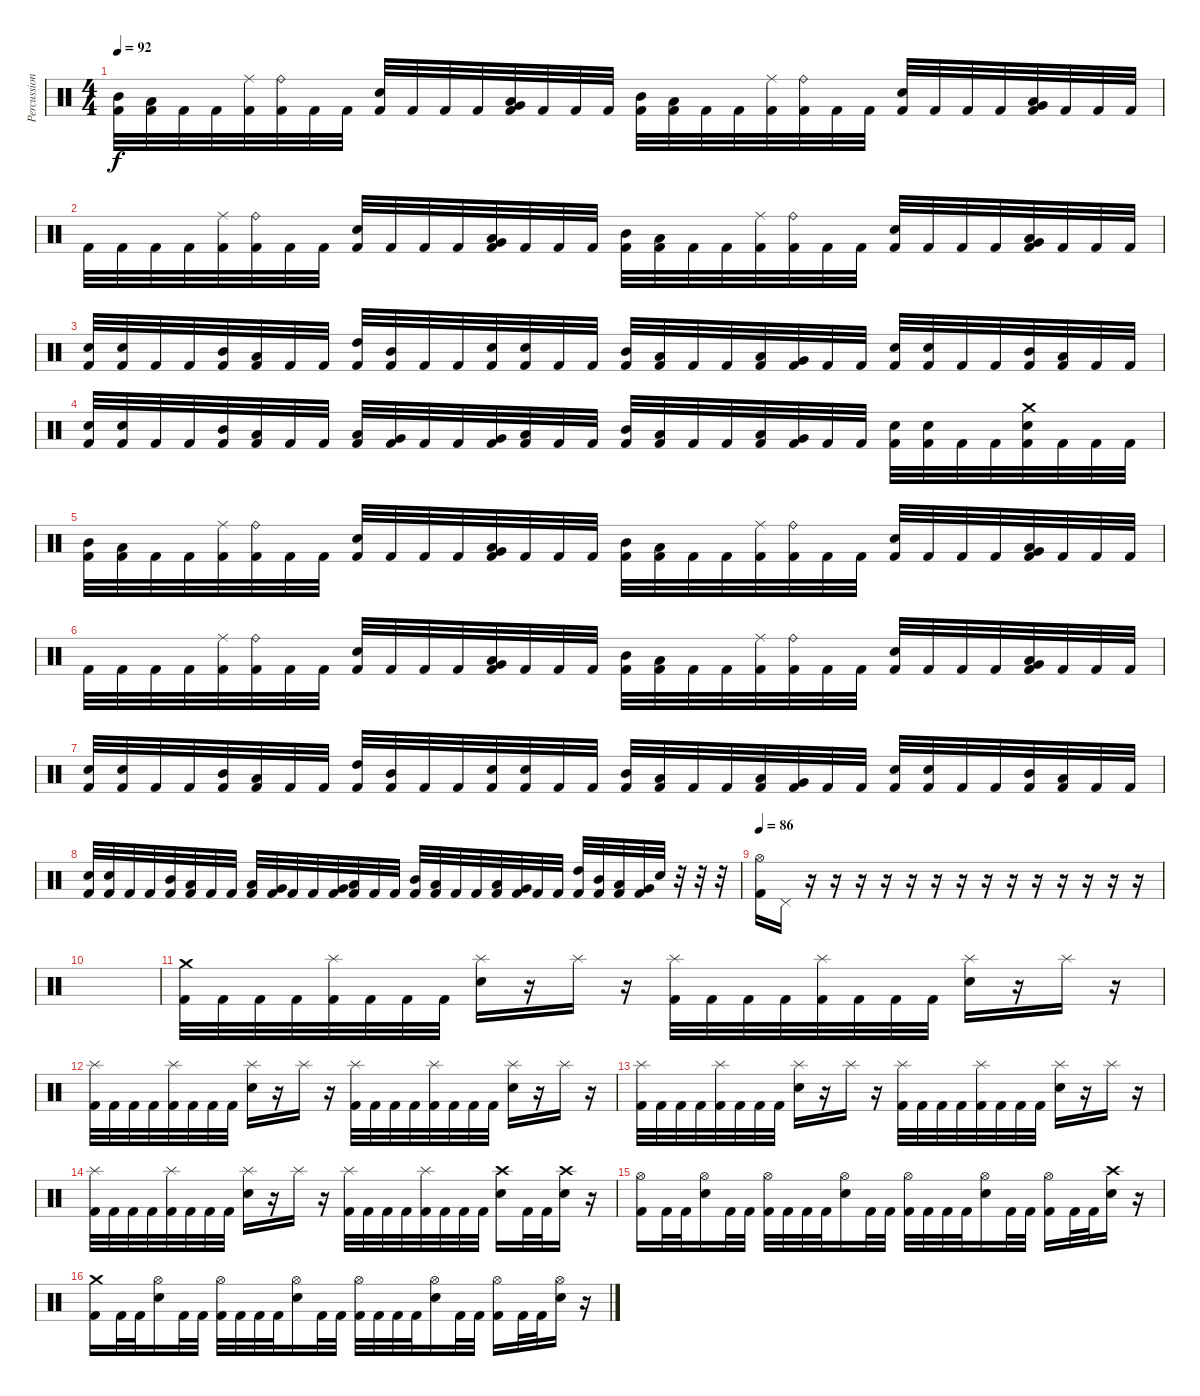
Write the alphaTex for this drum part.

\track ("Percussion" "Percussion") {instrument percussion}
\staff {score}
\articulation defaults
\ts (4 4)
\tempo 92
\clef neutral
\ks c
("Mid Tom (hit)" "Kick (hit) 2").32{dy f} ("Low Tom (hit)" "Kick (hit) 2").32 "Kick (hit) 2".32 "Kick (hit) 2".32 ("Ride (middle)" "Kick (hit) 2").32 ("Ride (bell)" "Kick (hit) 2").32 "Kick (hit) 2".32 "Kick (hit) 2".32 ("Electric Snare (hit)" "Kick (hit) 2").32 "Kick (hit) 2".32 "Kick (hit) 2".32 "Kick (hit) 2".32 ("Low Tom (hit)" "Very Low Tom (hit)" "Kick (hit) 2").32 "Kick (hit) 2".32 "Kick (hit) 2".32 "Kick (hit) 2".32 ("Mid Tom (hit)" "Kick (hit) 2").32 ("Low Tom (hit)" "Kick (hit) 2").32 "Kick (hit) 2".32 "Kick (hit) 2".32 ("Ride (middle)" "Kick (hit) 2").32 ("Ride (bell)" "Kick (hit) 2").32 "Kick (hit) 2".32 "Kick (hit) 2".32 ("Electric Snare (hit)" "Kick (hit) 2").32 "Kick (hit) 2".32 "Kick (hit) 2".32 "Kick (hit) 2".32 ("Low Tom (hit)" "Very Low Tom (hit)" "Kick (hit) 2").32 "Kick (hit) 2".32 "Kick (hit) 2".32 "Kick (hit) 2".32 |
"Kick (hit) 2".32 "Kick (hit) 2".32 "Kick (hit) 2".32 "Kick (hit) 2".32 ("Ride (middle)" "Kick (hit) 2").32 ("Ride (bell)" "Kick (hit) 2").32 "Kick (hit) 2".32 "Kick (hit) 2".32 ("Electric Snare (hit)" "Kick (hit) 2").32 "Kick (hit) 2".32 "Kick (hit) 2".32 "Kick (hit) 2".32 ("Low Tom (hit)" "Very Low Tom (hit)" "Kick (hit) 2").32 "Kick (hit) 2".32 "Kick (hit) 2".32 "Kick (hit) 2".32 ("Mid Tom (hit)" "Kick (hit) 2").32 ("Low Tom (hit)" "Kick (hit) 2").32 "Kick (hit) 2".32 "Kick (hit) 2".32 ("Ride (middle)" "Kick (hit) 2").32 ("Ride (bell)" "Kick (hit) 2").32 "Kick (hit) 2".32 "Kick (hit) 2".32 ("Electric Snare (hit)" "Kick (hit) 2").32 "Kick (hit) 2".32 "Kick (hit) 2".32 "Kick (hit) 2".32 ("Low Tom (hit)" "Very Low Tom (hit)" "Kick (hit) 2").32 "Kick (hit) 2".32 "Kick (hit) 2".32 "Kick (hit) 2".32 |
("Electric Snare (hit)" "Kick (hit) 2").32 ("Electric Snare (hit)" "Kick (hit) 2").32 "Kick (hit) 2".32 "Kick (hit) 2".32 ("Mid Tom (hit)" "Kick (hit) 2").32 ("Low Tom (hit)" "Kick (hit) 2").32 "Kick (hit) 2".32 "Kick (hit) 2".32 ("High Tom (hit)" "Kick (hit) 2").32 ("Mid Tom (hit)" "Kick (hit) 2").32 "Kick (hit) 2".32 "Kick (hit) 2".32 ("Electric Snare (hit)" "Kick (hit) 2").32 ("Electric Snare (hit)" "Kick (hit) 2").32 "Kick (hit) 2".32 "Kick (hit) 2".32 ("Mid Tom (hit)" "Kick (hit) 2").32 ("Low Tom (hit)" "Kick (hit) 2").32 "Kick (hit) 2".32 "Kick (hit) 2".32 ("Low Tom (hit)" "Kick (hit) 2").32 ("Very Low Tom (hit)" "Kick (hit) 2").32 "Kick (hit) 2".32 "Kick (hit) 2".32 ("Electric Snare (hit)" "Kick (hit) 2").32 ("Electric Snare (hit)" "Kick (hit) 2").32 "Kick (hit) 2".32 "Kick (hit) 2".32 ("Mid Tom (hit)" "Kick (hit) 2").32 ("Low Tom (hit)" "Kick (hit) 2").32 "Kick (hit) 2".32 "Kick (hit) 2".32 |
("Electric Snare (hit)" "Kick (hit) 2").32 ("Electric Snare (hit)" "Kick (hit) 2").32 "Kick (hit) 2".32 "Kick (hit) 2".32 ("Mid Tom (hit)" "Kick (hit) 2").32 ("Low Tom (hit)" "Kick (hit) 2").32 "Kick (hit) 2".32 "Kick (hit) 2".32 ("Low Tom (hit)" "Kick (hit) 2").32 ("Very Low Tom (hit)" "Kick (hit) 2").32 "Kick (hit) 2".32 "Kick (hit) 2".32 ("Very Low Tom (hit)" "Kick (hit) 2").32 ("Low Floor Tom (hit)" "Kick (hit) 2").32 "Kick (hit) 2".32 "Kick (hit) 2".32 ("Mid Tom (hit)" "Kick (hit) 2").32 ("Low Tom (hit)" "Kick (hit) 2").32 "Kick (hit) 2".32 "Kick (hit) 2".32 ("Low Tom (hit)" "Kick (hit) 2").32 ("Very Low Tom (hit)" "Kick (hit) 2").32 "Kick (hit) 2".32 "Kick (hit) 2".32 ("Electric Snare (hit)" "Kick (hit) 2").32 ("Electric Snare (hit)" "Kick (hit) 2").32 "Kick (hit) 2".32 "Kick (hit) 2".32 ("Crash medium (hit)" "Electric Snare (hit)" "Kick (hit) 2").32 "Kick (hit) 2".32 "Kick (hit) 2".32 "Kick (hit) 2".32 |
("Mid Tom (hit)" "Kick (hit) 2").32 ("Low Tom (hit)" "Kick (hit) 2").32 "Kick (hit) 2".32 "Kick (hit) 2".32 ("Ride (middle)" "Kick (hit) 2").32 ("Ride (bell)" "Kick (hit) 2").32 "Kick (hit) 2".32 "Kick (hit) 2".32 ("Electric Snare (hit)" "Kick (hit) 2").32 "Kick (hit) 2".32 "Kick (hit) 2".32 "Kick (hit) 2".32 ("Low Tom (hit)" "Very Low Tom (hit)" "Kick (hit) 2").32 "Kick (hit) 2".32 "Kick (hit) 2".32 "Kick (hit) 2".32 ("Mid Tom (hit)" "Kick (hit) 2").32 ("Low Tom (hit)" "Kick (hit) 2").32 "Kick (hit) 2".32 "Kick (hit) 2".32 ("Ride (middle)" "Kick (hit) 2").32 ("Ride (bell)" "Kick (hit) 2").32 "Kick (hit) 2".32 "Kick (hit) 2".32 ("Electric Snare (hit)" "Kick (hit) 2").32 "Kick (hit) 2".32 "Kick (hit) 2".32 "Kick (hit) 2".32 ("Low Tom (hit)" "Very Low Tom (hit)" "Kick (hit) 2").32 "Kick (hit) 2".32 "Kick (hit) 2".32 "Kick (hit) 2".32 |
"Kick (hit) 2".32 "Kick (hit) 2".32 "Kick (hit) 2".32 "Kick (hit) 2".32 ("Ride (middle)" "Kick (hit) 2").32 ("Ride (bell)" "Kick (hit) 2").32 "Kick (hit) 2".32 "Kick (hit) 2".32 ("Electric Snare (hit)" "Kick (hit) 2").32 "Kick (hit) 2".32 "Kick (hit) 2".32 "Kick (hit) 2".32 ("Low Tom (hit)" "Very Low Tom (hit)" "Kick (hit) 2").32 "Kick (hit) 2".32 "Kick (hit) 2".32 "Kick (hit) 2".32 ("Mid Tom (hit)" "Kick (hit) 2").32 ("Low Tom (hit)" "Kick (hit) 2").32 "Kick (hit) 2".32 "Kick (hit) 2".32 ("Ride (middle)" "Kick (hit) 2").32 ("Ride (bell)" "Kick (hit) 2").32 "Kick (hit) 2".32 "Kick (hit) 2".32 ("Electric Snare (hit)" "Kick (hit) 2").32 "Kick (hit) 2".32 "Kick (hit) 2".32 "Kick (hit) 2".32 ("Low Tom (hit)" "Very Low Tom (hit)" "Kick (hit) 2").32 "Kick (hit) 2".32 "Kick (hit) 2".32 "Kick (hit) 2".32 |
("Electric Snare (hit)" "Kick (hit) 2").32 ("Electric Snare (hit)" "Kick (hit) 2").32 "Kick (hit) 2".32 "Kick (hit) 2".32 ("Mid Tom (hit)" "Kick (hit) 2").32 ("Low Tom (hit)" "Kick (hit) 2").32 "Kick (hit) 2".32 "Kick (hit) 2".32 ("High Tom (hit)" "Kick (hit) 2").32 ("Mid Tom (hit)" "Kick (hit) 2").32 "Kick (hit) 2".32 "Kick (hit) 2".32 ("Electric Snare (hit)" "Kick (hit) 2").32 ("Electric Snare (hit)" "Kick (hit) 2").32 "Kick (hit) 2".32 "Kick (hit) 2".32 ("Mid Tom (hit)" "Kick (hit) 2").32 ("Low Tom (hit)" "Kick (hit) 2").32 "Kick (hit) 2".32 "Kick (hit) 2".32 ("Low Tom (hit)" "Kick (hit) 2").32 ("Very Low Tom (hit)" "Kick (hit) 2").32 "Kick (hit) 2".32 "Kick (hit) 2".32 ("Electric Snare (hit)" "Kick (hit) 2").32 ("Electric Snare (hit)" "Kick (hit) 2").32 "Kick (hit) 2".32 "Kick (hit) 2".32 ("Mid Tom (hit)" "Kick (hit) 2").32 ("Low Tom (hit)" "Kick (hit) 2").32 "Kick (hit) 2".32 "Kick (hit) 2".32 |
("Electric Snare (hit)" "Kick (hit) 2").32 ("Electric Snare (hit)" "Kick (hit) 2").32 "Kick (hit) 2".32 "Kick (hit) 2".32 ("Mid Tom (hit)" "Kick (hit) 2").32 ("Low Tom (hit)" "Kick (hit) 2").32 "Kick (hit) 2".32 "Kick (hit) 2".32 ("Low Tom (hit)" "Kick (hit) 2").32 ("Very Low Tom (hit)" "Kick (hit) 2").32 "Kick (hit) 2".32 "Kick (hit) 2".32 ("Very Low Tom (hit)" "Kick (hit) 2").32 ("Low Floor Tom (hit)" "Kick (hit) 2").32 "Kick (hit) 2".32 "Kick (hit) 2".32 ("Mid Tom (hit)" "Kick (hit) 2").32 ("Low Tom (hit)" "Kick (hit) 2").32 "Kick (hit) 2".32 "Kick (hit) 2".32 ("Low Tom (hit)" "Kick (hit) 2").32 ("Very Low Tom (hit)" "Kick (hit) 2").32 "Kick (hit) 2".32 "Kick (hit) 2".32 ("High Tom (hit)" "Kick (hit) 2").32 ("Mid Tom (hit)" "Kick (hit) 2").32 ("Low Tom (hit)" "Kick (hit) 2").32 ("Very Low Tom (hit)" "Kick (hit) 2").32 "Electric Snare (hit)".32 r.32 r.32 r.32 |
\tempo 86
("Hi-Hat (open)" "Kick (hit) 2").16 "Pedal Hi-Hat (hit)".16 r.16 r.16 r.16 r.16 r.16 r.16 r.16 r.16 r.16 r.16 r.16 r.16 r.16 r.16 |
|
("Crash medium (hit)" "Kick (hit) 2").32 "Kick (hit) 2".32 "Kick (hit) 2".32 "Kick (hit) 2".32 ("Splash (hit)" "Kick (hit) 2").32 "Kick (hit) 2".32 "Kick (hit) 2".32 "Kick (hit) 2".32 ("Splash (hit)" "Electric Snare (hit)").16 r.16 "Splash (hit)".16 r.16 ("Splash (hit)" "Kick (hit) 2").32 "Kick (hit) 2".32 "Kick (hit) 2".32 "Kick (hit) 2".32 ("Splash (hit)" "Kick (hit) 2").32 "Kick (hit) 2".32 "Kick (hit) 2".32 "Kick (hit) 2".32 ("Splash (hit)" "Electric Snare (hit)").16 r.16 "Splash (hit)".16 r.16 |
("Splash (hit)" "Kick (hit) 2").32 "Kick (hit) 2".32 "Kick (hit) 2".32 "Kick (hit) 2".32 ("Splash (hit)" "Kick (hit) 2").32 "Kick (hit) 2".32 "Kick (hit) 2".32 "Kick (hit) 2".32 ("Splash (hit)" "Electric Snare (hit)").16 r.16 "Splash (hit)".16 r.16 ("Splash (hit)" "Kick (hit) 2").32 "Kick (hit) 2".32 "Kick (hit) 2".32 "Kick (hit) 2".32 ("Splash (hit)" "Kick (hit) 2").32 "Kick (hit) 2".32 "Kick (hit) 2".32 "Kick (hit) 2".32 ("Splash (hit)" "Electric Snare (hit)").16 r.16 "Splash (hit)".16 r.16 |
("Splash (hit)" "Kick (hit) 2").32 "Kick (hit) 2".32 "Kick (hit) 2".32 "Kick (hit) 2".32 ("Splash (hit)" "Kick (hit) 2").32 "Kick (hit) 2".32 "Kick (hit) 2".32 "Kick (hit) 2".32 ("Splash (hit)" "Electric Snare (hit)").16 r.16 "Splash (hit)".16 r.16 ("Splash (hit)" "Kick (hit) 2").32 "Kick (hit) 2".32 "Kick (hit) 2".32 "Kick (hit) 2".32 ("Splash (hit)" "Kick (hit) 2").32 "Kick (hit) 2".32 "Kick (hit) 2".32 "Kick (hit) 2".32 ("Splash (hit)" "Electric Snare (hit)").16 r.16 "Splash (hit)".16 r.16 |
("Splash (hit)" "Kick (hit) 2").32 "Kick (hit) 2".32 "Kick (hit) 2".32 "Kick (hit) 2".32 ("Splash (hit)" "Kick (hit) 2").32 "Kick (hit) 2".32 "Kick (hit) 2".32 "Kick (hit) 2".32 ("Splash (hit)" "Electric Snare (hit)").16 r.16 "Splash (hit)".16 r.16 ("Splash (hit)" "Kick (hit) 2").32 "Kick (hit) 2".32 "Kick (hit) 2".32 "Kick (hit) 2".32 ("Splash (hit)" "Kick (hit) 2").32 "Kick (hit) 2".32 "Kick (hit) 2".32 "Kick (hit) 2".32 ("Crash high (hit)" "Electric Snare (hit)").16 "Kick (hit) 2".32 "Kick (hit) 2".32 ("Crash high (hit)" "Electric Snare (hit)").16 r.16 |
("Hi-Hat (open)" "Kick (hit) 2").16 "Kick (hit) 2".32 "Kick (hit) 2".32 ("Hi-Hat (open)" "Electric Snare (hit)").16 "Kick (hit) 2".32 "Kick (hit) 2".32 ("Hi-Hat (open)" "Kick (hit) 2").32 "Kick (hit) 2".32 "Kick (hit) 2".32 "Kick (hit) 2".32 ("Hi-Hat (open)" "Electric Snare (hit)").16 "Kick (hit) 2".32 "Kick (hit) 2".32 ("Hi-Hat (open)" "Kick (hit) 2").32 "Kick (hit) 2".32 "Kick (hit) 2".32 "Kick (hit) 2".32 ("Hi-Hat (open)" "Electric Snare (hit)").16 "Kick (hit) 2".32 "Kick (hit) 2".32 ("Hi-Hat (open)" "Kick (hit) 2").16 "Kick (hit) 2".32 "Kick (hit) 2".32 ("Crash high (hit)" "Electric Snare (hit)").16 r.16 |
("Crash medium (hit)" "Kick (hit) 2").16 "Kick (hit) 2".32 "Kick (hit) 2".32 ("Hi-Hat (open)" "Electric Snare (hit)").16 "Kick (hit) 2".32 "Kick (hit) 2".32 ("Hi-Hat (open)" "Kick (hit) 2").32 "Kick (hit) 2".32 "Kick (hit) 2".32 "Kick (hit) 2".32 ("Hi-Hat (open)" "Electric Snare (hit)").16 "Kick (hit) 2".32 "Kick (hit) 2".32 ("Hi-Hat (open)" "Kick (hit) 2").32 "Kick (hit) 2".32 "Kick (hit) 2".32 "Kick (hit) 2".32 ("Hi-Hat (open)" "Electric Snare (hit)").16 "Kick (hit) 2".32 "Kick (hit) 2".32 ("Hi-Hat (open)" "Kick (hit) 2").16 "Kick (hit) 2".32 "Kick (hit) 2".32 ("Hi-Hat (open)" "Electric Snare (hit)").16 r.16
